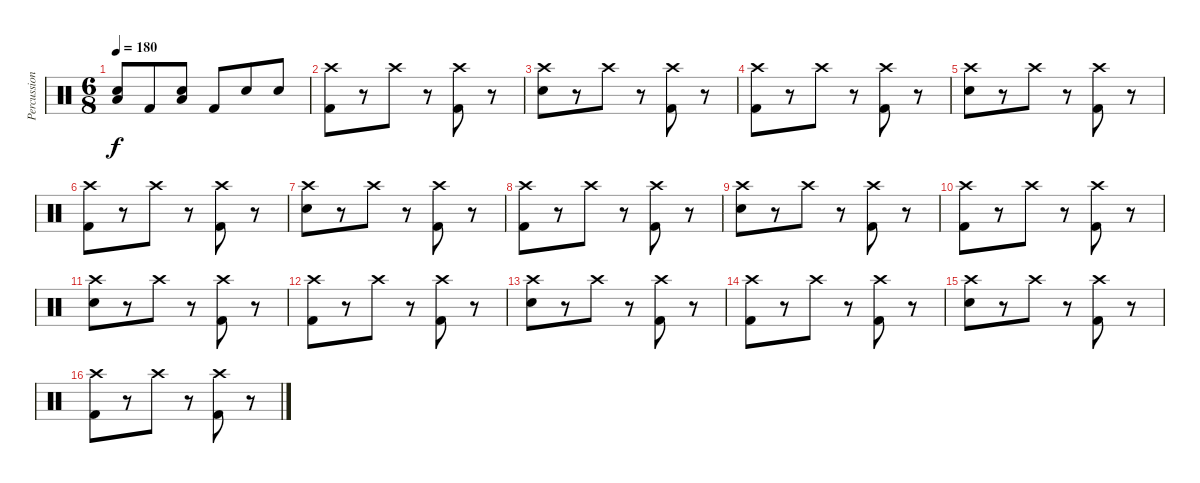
\track ("Percussion" "Percussion") {instrument percussion}
\staff {score}
\articulation defaults
\ts (6 8)
\tempo 180
\clef neutral
\ks c
("Low Floor Tom (hit)" "Electric Snare (hit)").8{dy f} "Kick (hit) 2".8 ("Low Floor Tom (hit)" "Electric Snare (hit)").8 "Kick (hit) 2".8 "Electric Snare (hit)".8 "Electric Snare (hit)".8 |
("Crash high (hit)" "Kick (hit) 2").8 r.8 "Crash high (hit)".8 r.8 ("Crash high (hit)" "Kick (hit) 2").8 r.8 |
("Crash high (hit)" "Electric Snare (hit)").8 r.8 "Crash high (hit)".8 r.8 ("Crash high (hit)" "Kick (hit) 2").8 r.8 |
("Crash high (hit)" "Kick (hit) 2").8 r.8 "Crash high (hit)".8 r.8 ("Crash high (hit)" "Kick (hit) 2").8 r.8 |
("Crash high (hit)" "Electric Snare (hit)").8 r.8 "Crash high (hit)".8 r.8 ("Crash high (hit)" "Kick (hit) 2").8 r.8 |
("Crash high (hit)" "Kick (hit) 2").8 r.8 "Crash high (hit)".8 r.8 ("Crash high (hit)" "Kick (hit) 2").8 r.8 |
("Crash high (hit)" "Electric Snare (hit)").8 r.8 "Crash high (hit)".8 r.8 ("Crash high (hit)" "Kick (hit) 2").8 r.8 |
("Crash high (hit)" "Kick (hit) 2").8 r.8 "Crash high (hit)".8 r.8 ("Crash high (hit)" "Kick (hit) 2").8 r.8 |
("Crash high (hit)" "Electric Snare (hit)").8 r.8 "Crash high (hit)".8 r.8 ("Crash high (hit)" "Kick (hit) 2").8 r.8 |
("Crash high (hit)" "Kick (hit) 2").8 r.8 "Crash high (hit)".8 r.8 ("Crash high (hit)" "Kick (hit) 2").8 r.8 |
("Crash high (hit)" "Electric Snare (hit)").8 r.8 "Crash high (hit)".8 r.8 ("Crash high (hit)" "Kick (hit) 2").8 r.8 |
("Crash high (hit)" "Kick (hit) 2").8 r.8 "Crash high (hit)".8 r.8 ("Crash high (hit)" "Kick (hit) 2").8 r.8 |
("Crash high (hit)" "Electric Snare (hit)").8 r.8 "Crash high (hit)".8 r.8 ("Crash high (hit)" "Kick (hit) 2").8 r.8 |
("Crash high (hit)" "Kick (hit) 2").8 r.8 "Crash high (hit)".8 r.8 ("Crash high (hit)" "Kick (hit) 2").8 r.8 |
("Crash high (hit)" "Electric Snare (hit)").8 r.8 "Crash high (hit)".8 r.8 ("Crash high (hit)" "Kick (hit) 2").8 r.8 |
("Crash high (hit)" "Kick (hit) 2").8 r.8 "Crash high (hit)".8 r.8 ("Crash high (hit)" "Kick (hit) 2").8 r.8
